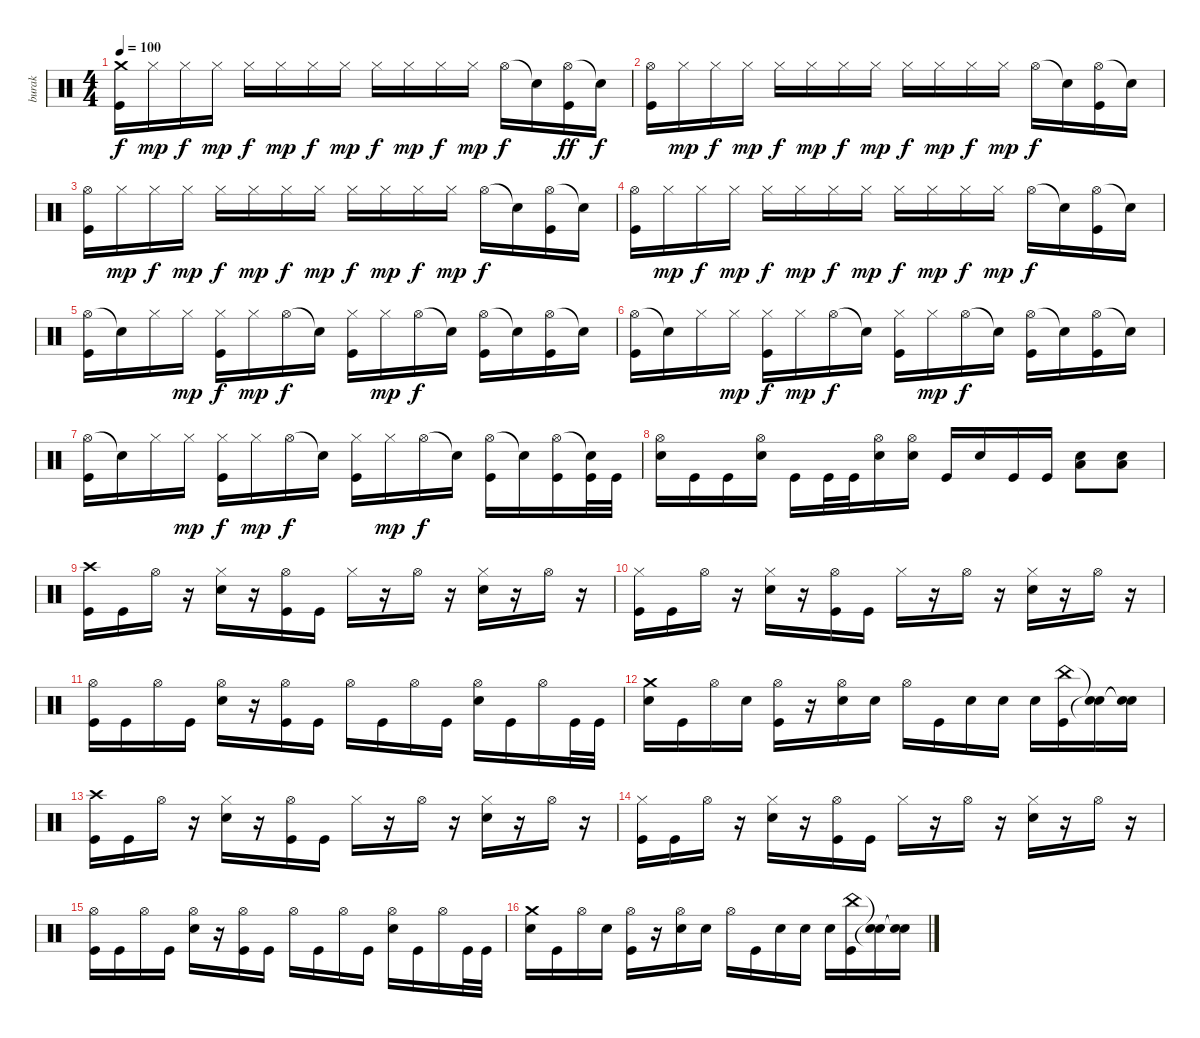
\track ("burak" "burak") {instrument percussion}
\staff {score}
\articulation defaults
\ts (4 4)
\tempo 100
\clef neutral
\ks c
("Crash medium (hit)" "Kick (hit)").16{dy f} "Hi-Hat (closed)".16{dy mp} "Hi-Hat (closed)".16{dy f} "Hi-Hat (closed)".16{dy mp} "Hi-Hat (closed)".16{dy f} "Hi-Hat (closed)".16{dy mp} "Hi-Hat (closed)".16{dy f} "Hi-Hat (closed)".16{dy mp} "Hi-Hat (closed)".16{dy f} "Hi-Hat (closed)".16{dy mp} "Hi-Hat (closed)".16{dy f} "Hi-Hat (closed)".16{dy mp} "Hi-Hat (open)".16{dy f} "Snare (hit)"{t}.16 ("Hi-Hat (open)" "Kick (hit)").16{dy ff} "Snare (hit)"{t}.16{dy f} |
("Hi-Hat (open)" "Kick (hit)").16 "Hi-Hat (closed)".16{dy mp} "Hi-Hat (closed)".16{dy f} "Hi-Hat (closed)".16{dy mp} "Hi-Hat (closed)".16{dy f} "Hi-Hat (closed)".16{dy mp} "Hi-Hat (closed)".16{dy f} "Hi-Hat (closed)".16{dy mp} "Hi-Hat (closed)".16{dy f} "Hi-Hat (closed)".16{dy mp} "Hi-Hat (closed)".16{dy f} "Hi-Hat (closed)".16{dy mp} "Hi-Hat (open)".16{dy f} "Snare (hit)"{t}.16 ("Hi-Hat (open)" "Kick (hit)").16 "Snare (hit)"{t}.16 |
("Hi-Hat (open)" "Kick (hit)").16 "Hi-Hat (closed)".16{dy mp} "Hi-Hat (closed)".16{dy f} "Hi-Hat (closed)".16{dy mp} "Hi-Hat (closed)".16{dy f} "Hi-Hat (closed)".16{dy mp} "Hi-Hat (closed)".16{dy f} "Hi-Hat (closed)".16{dy mp} "Hi-Hat (closed)".16{dy f} "Hi-Hat (closed)".16{dy mp} "Hi-Hat (closed)".16{dy f} "Hi-Hat (closed)".16{dy mp} "Hi-Hat (open)".16{dy f} "Snare (hit)"{t}.16 ("Hi-Hat (open)" "Kick (hit)").16 "Snare (hit)"{t}.16 |
("Hi-Hat (open)" "Kick (hit)").16 "Hi-Hat (closed)".16{dy mp} "Hi-Hat (closed)".16{dy f} "Hi-Hat (closed)".16{dy mp} "Hi-Hat (closed)".16{dy f} "Hi-Hat (closed)".16{dy mp} "Hi-Hat (closed)".16{dy f} "Hi-Hat (closed)".16{dy mp} "Hi-Hat (closed)".16{dy f} "Hi-Hat (closed)".16{dy mp} "Hi-Hat (closed)".16{dy f} "Hi-Hat (closed)".16{dy mp} "Hi-Hat (open)".16{dy f} "Snare (hit)"{t}.16 ("Hi-Hat (open)" "Kick (hit)").16 "Snare (hit)"{t}.16 |
("Hi-Hat (open)" "Kick (hit)").16 "Snare (hit)"{t}.16 "Hi-Hat (closed)".16 "Hi-Hat (closed)".16{dy mp} ("Hi-Hat (closed)" "Kick (hit)").16{dy f} "Hi-Hat (closed)".16{dy mp} "Hi-Hat (open)".16{dy f} "Snare (hit)"{t}.16 ("Hi-Hat (closed)" "Kick (hit)").16 "Hi-Hat (closed)".16{dy mp} "Hi-Hat (open)".16{dy f} "Snare (hit)"{t}.16 ("Hi-Hat (open)" "Kick (hit)").16 "Snare (hit)"{t}.16 ("Hi-Hat (open)" "Kick (hit)").16 "Snare (hit)"{t}.16 |
("Hi-Hat (open)" "Kick (hit)").16 "Snare (hit)"{t}.16 "Hi-Hat (closed)".16 "Hi-Hat (closed)".16{dy mp} ("Hi-Hat (closed)" "Kick (hit)").16{dy f} "Hi-Hat (closed)".16{dy mp} "Hi-Hat (open)".16{dy f} "Snare (hit)"{t}.16 ("Hi-Hat (closed)" "Kick (hit)").16 "Hi-Hat (closed)".16{dy mp} "Hi-Hat (open)".16{dy f} "Snare (hit)"{t}.16 ("Hi-Hat (open)" "Kick (hit)").16 "Snare (hit)"{t}.16 ("Hi-Hat (open)" "Kick (hit)").16 "Snare (hit)"{t}.16 |
("Hi-Hat (open)" "Kick (hit)").16 "Snare (hit)"{t}.16 "Hi-Hat (closed)".16 "Hi-Hat (closed)".16{dy mp} ("Hi-Hat (closed)" "Kick (hit)").16{dy f} "Hi-Hat (closed)".16{dy mp} "Hi-Hat (open)".16{dy f} "Snare (hit)"{t}.16 ("Hi-Hat (closed)" "Kick (hit)").16 "Hi-Hat (closed)".16{dy mp} "Hi-Hat (open)".16{dy f} "Snare (hit)"{t}.16 ("Hi-Hat (open)" "Kick (hit)").16 "Snare (hit)"{t}.16 ("Hi-Hat (open)" "Kick (hit)").16 ("Snare (hit)"{t} "Kick (hit)").32 "Kick (hit)".32 |
("Electric Snare (hit)" "Hi-Hat (open)").16 "Kick (hit)".16 "Kick (hit)".16 ("Electric Snare (hit)" "Hi-Hat (open)").16 "Kick (hit)".16 "Kick (hit)".32 "Kick (hit)".32 ("Electric Snare (hit)" "Hi-Hat (open)").16 ("Electric Snare (hit)" "Hi-Hat (open)").16 "Kick (hit)".16 "Electric Snare (hit)".16 "Kick (hit)".16 "Kick (hit)".16 ("Low Floor Tom (hit)" "Electric Snare (hit)").8 ("Low Floor Tom (hit)" "Electric Snare (hit)").8 |
("Crash high (hit)" "Kick (hit)").16 "Kick (hit)".16 "Hi-Hat (open)".16 r.16 ("Hi-Hat (closed)" "Electric Snare (hit)").16 r.16 ("Hi-Hat (open)" "Kick (hit)").16 "Kick (hit)".16 "Hi-Hat (closed)".16 r.16 "Hi-Hat (open)".16 r.16 ("Hi-Hat (closed)" "Electric Snare (hit)").16 r.16 "Hi-Hat (open)".16 r.16 |
("Hi-Hat (closed)" "Kick (hit)").16 "Kick (hit)".16 "Hi-Hat (open)".16 r.16 ("Hi-Hat (closed)" "Electric Snare (hit)").16 r.16 ("Hi-Hat (open)" "Kick (hit)").16 "Kick (hit)".16 "Hi-Hat (closed)".16 r.16 "Hi-Hat (open)".16 r.16 ("Hi-Hat (closed)" "Electric Snare (hit)").16 r.16 "Hi-Hat (open)".16 r.16 |
("Hi-Hat (open)" "Kick (hit)").16 "Kick (hit)".16 "Hi-Hat (open)".16 "Kick (hit)".16 ("Hi-Hat (open)" "Electric Snare (hit)").16 r.16 ("Hi-Hat (open)" "Kick (hit)").16 "Kick (hit)".16 "Hi-Hat (open)".16 "Kick (hit)".16 "Hi-Hat (open)".16 "Kick (hit)".16 ("Hi-Hat (open)" "Electric Snare (hit)").16 "Kick (hit)".16 "Hi-Hat (open)".16 "Kick (hit)".32 "Kick (hit)".32 |
("Crash medium (hit)" "Electric Snare (hit)").16 "Kick (hit)".16 "Hi-Hat (open)".16 "Electric Snare (hit)".16 ("Hi-Hat (open)" "Kick (hit)").16 r.16 ("Hi-Hat (open)" "Electric Snare (hit)").16 "Electric Snare (hit)".16 "Hi-Hat (open)".16 "Kick (hit)".16 "Electric Snare (hit)".16 "Electric Snare (hit)".16 "Electric Snare (hit)".16 ("China (hit)" "Kick (hit)").16 ("Snare (hit)"{t} "Snare (hit)"{t}).16 ("Snare (hit)"{t} "Snare (hit)"{t}).16 |
("Crash high (hit)" "Kick (hit)").16 "Kick (hit)".16 "Hi-Hat (open)".16 r.16 ("Hi-Hat (closed)" "Electric Snare (hit)").16 r.16 ("Hi-Hat (open)" "Kick (hit)").16 "Kick (hit)".16 "Hi-Hat (closed)".16 r.16 "Hi-Hat (open)".16 r.16 ("Hi-Hat (closed)" "Electric Snare (hit)").16 r.16 "Hi-Hat (open)".16 r.16 |
("Hi-Hat (closed)" "Kick (hit)").16 "Kick (hit)".16 "Hi-Hat (open)".16 r.16 ("Hi-Hat (closed)" "Electric Snare (hit)").16 r.16 ("Hi-Hat (open)" "Kick (hit)").16 "Kick (hit)".16 "Hi-Hat (closed)".16 r.16 "Hi-Hat (open)".16 r.16 ("Hi-Hat (closed)" "Electric Snare (hit)").16 r.16 "Hi-Hat (open)".16 r.16 |
("Hi-Hat (open)" "Kick (hit)").16 "Kick (hit)".16 "Hi-Hat (open)".16 "Kick (hit)".16 ("Hi-Hat (open)" "Electric Snare (hit)").16 r.16 ("Hi-Hat (open)" "Kick (hit)").16 "Kick (hit)".16 "Hi-Hat (open)".16 "Kick (hit)".16 "Hi-Hat (open)".16 "Kick (hit)".16 ("Hi-Hat (open)" "Electric Snare (hit)").16 "Kick (hit)".16 "Hi-Hat (open)".16 "Kick (hit)".32 "Kick (hit)".32 |
("Crash medium (hit)" "Electric Snare (hit)").16 "Kick (hit)".16 "Hi-Hat (open)".16 "Electric Snare (hit)".16 ("Hi-Hat (open)" "Kick (hit)").16 r.16 ("Hi-Hat (open)" "Electric Snare (hit)").16 "Electric Snare (hit)".16 "Hi-Hat (open)".16 "Kick (hit)".16 "Electric Snare (hit)".16 "Electric Snare (hit)".16 "Electric Snare (hit)".16 ("China (hit)" "Kick (hit)").16 ("Snare (hit)"{t} "Snare (hit)"{t}).16 ("Snare (hit)"{t} "Snare (hit)"{t}).16
